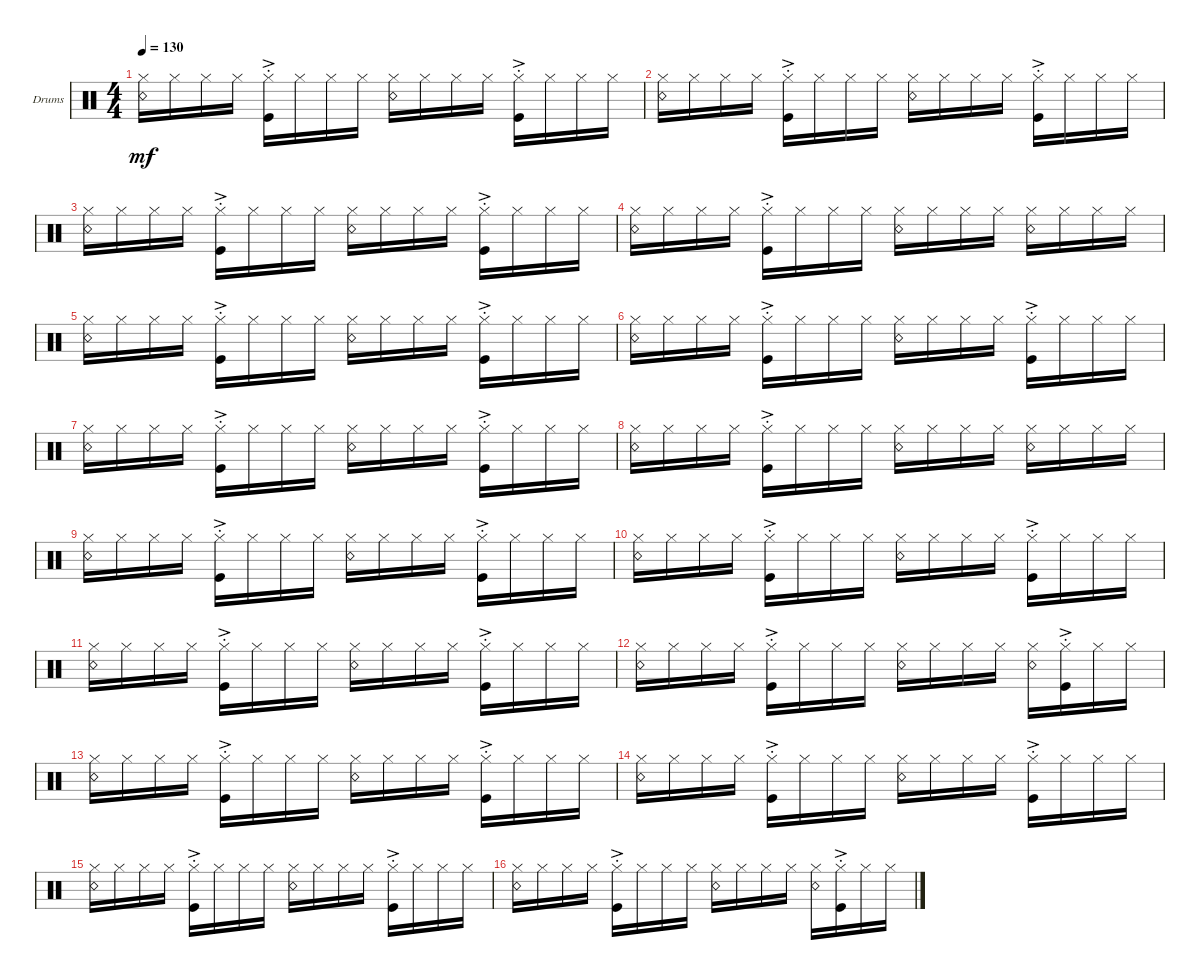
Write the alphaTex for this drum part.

\defaultSystemsLayout 4
\bracketExtendMode groupsimilarinstruments
\firstSystemTrackNameOrientation horizontal
\otherSystemsTrackNameOrientation horizontal
\track ("Drumkit" "Drums") {instrument percussion}
\staff {score}
\articulation defaults
\ts (4 4)
\tempo 130
\clef neutral
\scale
0.474178
\ks c
("Snare (rim shot)" "Hi-Hat (closed)").16{dy mf} "Hi-Hat (closed)".16 "Hi-Hat (closed)".16 "Hi-Hat (closed)".16 ("Hi-Hat (closed)" "Kick (hit)"{ac st}).16 "Hi-Hat (closed)".16 "Hi-Hat (closed)".16 "Hi-Hat (closed)".16 ("Hi-Hat (closed)" "Snare (rim shot)").16 "Hi-Hat (closed)".16 "Hi-Hat (closed)".16 "Hi-Hat (closed)".16 ("Hi-Hat (closed)" "Kick (hit)"{ac st}).16 "Hi-Hat (closed)".16 "Hi-Hat (closed)".16 "Hi-Hat (closed)".16 |
\scale
0.262911 ("Hi-Hat (closed)" "Snare (rim shot)").16 "Hi-Hat (closed)".16 "Hi-Hat (closed)".16 "Hi-Hat (closed)".16 ("Hi-Hat (closed)" "Kick (hit)"{ac st}).16 "Hi-Hat (closed)".16 "Hi-Hat (closed)".16 "Hi-Hat (closed)".16 ("Hi-Hat (closed)" "Snare (rim shot)").16 "Hi-Hat (closed)".16 "Hi-Hat (closed)".16 "Hi-Hat (closed)".16 ("Hi-Hat (closed)" "Kick (hit)"{ac st}).16 "Hi-Hat (closed)".16 "Hi-Hat (closed)".16 "Hi-Hat (closed)".16 |
\scale
0.262911 ("Hi-Hat (closed)" "Snare (rim shot)").16 "Hi-Hat (closed)".16 "Hi-Hat (closed)".16 "Hi-Hat (closed)".16 ("Hi-Hat (closed)" "Kick (hit)"{ac st}).16 "Hi-Hat (closed)".16 "Hi-Hat (closed)".16 "Hi-Hat (closed)".16 ("Hi-Hat (closed)" "Snare (rim shot)").16 "Hi-Hat (closed)".16 "Hi-Hat (closed)".16 "Hi-Hat (closed)".16 ("Hi-Hat (closed)" "Kick (hit)"{ac st}).16 "Hi-Hat (closed)".16 "Hi-Hat (closed)".16 "Hi-Hat (closed)".16 |
("Hi-Hat (closed)" "Snare (rim shot)").16 "Hi-Hat (closed)".16 "Hi-Hat (closed)".16 "Hi-Hat (closed)".16 ("Hi-Hat (closed)" "Kick (hit)"{ac st}).16 "Hi-Hat (closed)".16 "Hi-Hat (closed)".16 "Hi-Hat (closed)".16 ("Hi-Hat (closed)" "Snare (rim shot)").16 "Hi-Hat (closed)".16 "Hi-Hat (closed)".16 "Hi-Hat (closed)".16 ("Hi-Hat (closed)" "Snare (rim shot)").16 "Hi-Hat (closed)".16 "Hi-Hat (closed)".16 "Hi-Hat (closed)".16 |
("Snare (rim shot)" "Hi-Hat (closed)").16 "Hi-Hat (closed)".16 "Hi-Hat (closed)".16 "Hi-Hat (closed)".16 ("Hi-Hat (closed)" "Kick (hit)"{ac st}).16 "Hi-Hat (closed)".16 "Hi-Hat (closed)".16 "Hi-Hat (closed)".16 ("Hi-Hat (closed)" "Snare (rim shot)").16 "Hi-Hat (closed)".16 "Hi-Hat (closed)".16 "Hi-Hat (closed)".16 ("Hi-Hat (closed)" "Kick (hit)"{ac st}).16 "Hi-Hat (closed)".16 "Hi-Hat (closed)".16 "Hi-Hat (closed)".16 |
("Hi-Hat (closed)" "Snare (rim shot)").16 "Hi-Hat (closed)".16 "Hi-Hat (closed)".16 "Hi-Hat (closed)".16 ("Hi-Hat (closed)" "Kick (hit)"{ac st}).16 "Hi-Hat (closed)".16 "Hi-Hat (closed)".16 "Hi-Hat (closed)".16 ("Hi-Hat (closed)" "Snare (rim shot)").16 "Hi-Hat (closed)".16 "Hi-Hat (closed)".16 "Hi-Hat (closed)".16 ("Hi-Hat (closed)" "Kick (hit)"{ac st}).16 "Hi-Hat (closed)".16 "Hi-Hat (closed)".16 "Hi-Hat (closed)".16 |
("Hi-Hat (closed)" "Snare (rim shot)").16 "Hi-Hat (closed)".16 "Hi-Hat (closed)".16 "Hi-Hat (closed)".16 ("Hi-Hat (closed)" "Kick (hit)"{ac st}).16 "Hi-Hat (closed)".16 "Hi-Hat (closed)".16 "Hi-Hat (closed)".16 ("Hi-Hat (closed)" "Snare (rim shot)").16 "Hi-Hat (closed)".16 "Hi-Hat (closed)".16 "Hi-Hat (closed)".16 ("Hi-Hat (closed)" "Kick (hit)"{ac st}).16 "Hi-Hat (closed)".16 "Hi-Hat (closed)".16 "Hi-Hat (closed)".16 |
("Hi-Hat (closed)" "Snare (rim shot)").16 "Hi-Hat (closed)".16 "Hi-Hat (closed)".16 "Hi-Hat (closed)".16 ("Hi-Hat (closed)" "Kick (hit)"{ac st}).16 "Hi-Hat (closed)".16 "Hi-Hat (closed)".16 "Hi-Hat (closed)".16 ("Hi-Hat (closed)" "Snare (rim shot)").16 "Hi-Hat (closed)".16 "Hi-Hat (closed)".16 "Hi-Hat (closed)".16 ("Hi-Hat (closed)" "Snare (rim shot)").16 "Hi-Hat (closed)".16 "Hi-Hat (closed)".16 "Hi-Hat (closed)".16 |
("Hi-Hat (closed)" "Snare (rim shot)").16 "Hi-Hat (closed)".16 "Hi-Hat (closed)".16 "Hi-Hat (closed)".16 ("Hi-Hat (closed)" "Kick (hit)"{ac st}).16 "Hi-Hat (closed)".16 "Hi-Hat (closed)".16 "Hi-Hat (closed)".16 ("Hi-Hat (closed)" "Snare (rim shot)").16 "Hi-Hat (closed)".16 "Hi-Hat (closed)".16 "Hi-Hat (closed)".16 ("Hi-Hat (closed)" "Kick (hit)"{ac st}).16 "Hi-Hat (closed)".16 "Hi-Hat (closed)".16 "Hi-Hat (closed)".16 |
("Snare (rim shot)" "Hi-Hat (closed)").16 "Hi-Hat (closed)".16 "Hi-Hat (closed)".16 "Hi-Hat (closed)".16 ("Hi-Hat (closed)" "Kick (hit)"{ac st}).16 "Hi-Hat (closed)".16 "Hi-Hat (closed)".16 "Hi-Hat (closed)".16 ("Hi-Hat (closed)" "Snare (rim shot)").16 "Hi-Hat (closed)".16 "Hi-Hat (closed)".16 "Hi-Hat (closed)".16 ("Hi-Hat (closed)" "Kick (hit)"{ac st}).16 "Hi-Hat (closed)".16 "Hi-Hat (closed)".16 "Hi-Hat (closed)".16 |
("Hi-Hat (closed)" "Snare (rim shot)").16 "Hi-Hat (closed)".16 "Hi-Hat (closed)".16 "Hi-Hat (closed)".16 ("Hi-Hat (closed)" "Kick (hit)"{ac st}).16 "Hi-Hat (closed)".16 "Hi-Hat (closed)".16 "Hi-Hat (closed)".16 ("Hi-Hat (closed)" "Snare (rim shot)").16 "Hi-Hat (closed)".16 "Hi-Hat (closed)".16 "Hi-Hat (closed)".16 ("Hi-Hat (closed)" "Kick (hit)"{ac st}).16 "Hi-Hat (closed)".16 "Hi-Hat (closed)".16 "Hi-Hat (closed)".16 |
("Hi-Hat (closed)" "Snare (rim shot)").16 "Hi-Hat (closed)".16 "Hi-Hat (closed)".16 "Hi-Hat (closed)".16 ("Hi-Hat (closed)" "Kick (hit)"{ac st}).16 "Hi-Hat (closed)".16 "Hi-Hat (closed)".16 "Hi-Hat (closed)".16 ("Hi-Hat (closed)" "Snare (rim shot)").16 "Hi-Hat (closed)".16 "Hi-Hat (closed)".16 "Hi-Hat (closed)".16 ("Hi-Hat (closed)" "Snare (rim shot)").16 ("Hi-Hat (closed)" "Kick (hit)"{ac st}).16 "Hi-Hat (closed)".16 "Hi-Hat (closed)".16 |
("Hi-Hat (closed)" "Snare (rim shot)").16 "Hi-Hat (closed)".16 "Hi-Hat (closed)".16 "Hi-Hat (closed)".16 ("Hi-Hat (closed)" "Kick (hit)"{ac st}).16 "Hi-Hat (closed)".16 "Hi-Hat (closed)".16 "Hi-Hat (closed)".16 ("Hi-Hat (closed)" "Snare (rim shot)").16 "Hi-Hat (closed)".16 "Hi-Hat (closed)".16 "Hi-Hat (closed)".16 ("Hi-Hat (closed)" "Kick (hit)"{ac st}).16 "Hi-Hat (closed)".16 "Hi-Hat (closed)".16 "Hi-Hat (closed)".16 |
("Snare (rim shot)" "Hi-Hat (closed)").16 "Hi-Hat (closed)".16 "Hi-Hat (closed)".16 "Hi-Hat (closed)".16 ("Hi-Hat (closed)" "Kick (hit)"{ac st}).16 "Hi-Hat (closed)".16 "Hi-Hat (closed)".16 "Hi-Hat (closed)".16 ("Hi-Hat (closed)" "Snare (rim shot)").16 "Hi-Hat (closed)".16 "Hi-Hat (closed)".16 "Hi-Hat (closed)".16 ("Hi-Hat (closed)" "Kick (hit)"{ac st}).16 "Hi-Hat (closed)".16 "Hi-Hat (closed)".16 "Hi-Hat (closed)".16 |
("Hi-Hat (closed)" "Snare (rim shot)").16 "Hi-Hat (closed)".16 "Hi-Hat (closed)".16 "Hi-Hat (closed)".16 ("Hi-Hat (closed)" "Kick (hit)"{ac st}).16 "Hi-Hat (closed)".16 "Hi-Hat (closed)".16 "Hi-Hat (closed)".16 ("Hi-Hat (closed)" "Snare (rim shot)").16 "Hi-Hat (closed)".16 "Hi-Hat (closed)".16 "Hi-Hat (closed)".16 ("Hi-Hat (closed)" "Kick (hit)"{ac st}).16 "Hi-Hat (closed)".16 "Hi-Hat (closed)".16 "Hi-Hat (closed)".16 |
("Hi-Hat (closed)" "Snare (rim shot)").16 "Hi-Hat (closed)".16 "Hi-Hat (closed)".16 "Hi-Hat (closed)".16 ("Hi-Hat (closed)" "Kick (hit)"{ac st}).16 "Hi-Hat (closed)".16 "Hi-Hat (closed)".16 "Hi-Hat (closed)".16 ("Hi-Hat (closed)" "Snare (rim shot)").16 "Hi-Hat (closed)".16 "Hi-Hat (closed)".16 "Hi-Hat (closed)".16 ("Hi-Hat (closed)" "Snare (rim shot)").16 ("Hi-Hat (closed)" "Kick (hit)"{ac st}).16 "Hi-Hat (closed)".16 "Hi-Hat (closed)".16
